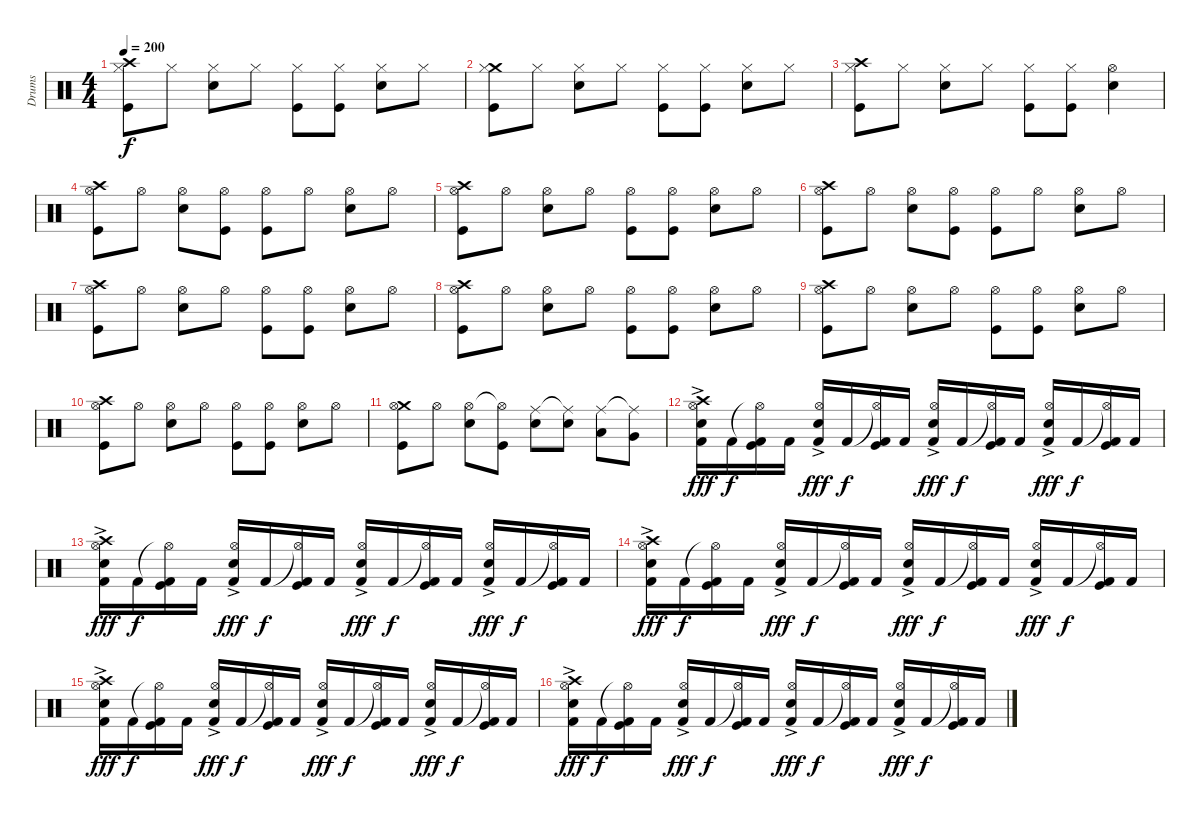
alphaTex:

\track ("Drums" "Drums") {instrument percussion}
\staff {score}
\articulation defaults
\ts (4 4)
\tempo 200
\clef neutral
\ks c
("Crash high (hit)" "Hi-Hat (closed)" "Kick (hit)").8{dy f} "Hi-Hat (closed)".8 ("Hi-Hat (closed)" "Snare (hit) 2").8 "Hi-Hat (closed)".8 ("Hi-Hat (closed)" "Kick (hit)").8 ("Hi-Hat (closed)" "Kick (hit)").8 ("Hi-Hat (closed)" "Snare (hit) 2").8 "Hi-Hat (closed)".8 |
("Crash medium (hit)" "Hi-Hat (closed)" "Kick (hit)").8 "Hi-Hat (closed)".8 ("Hi-Hat (closed)" "Snare (hit) 2").8 "Hi-Hat (closed)".8 ("Hi-Hat (closed)" "Kick (hit)").8 ("Hi-Hat (closed)" "Kick (hit)").8 ("Hi-Hat (closed)" "Snare (hit) 2").8 "Hi-Hat (closed)".8 |
("Crash high (hit)" "Hi-Hat (closed)" "Kick (hit)").8 "Hi-Hat (closed)".8 ("Hi-Hat (closed)" "Snare (hit) 2").8 "Hi-Hat (closed)".8 ("Hi-Hat (closed)" "Kick (hit)").8 ("Hi-Hat (closed)" "Kick (hit)").8 ("Hi-Hat (open)" "Snare (hit) 2").4 |
("Crash high (hit)" "Hi-Hat (open)" "Kick (hit)").8 "Hi-Hat (open)".8 ("Hi-Hat (open)" "Snare (hit) 2").8 ("Hi-Hat (open)" "Kick (hit)").8 ("Hi-Hat (open)" "Kick (hit)").8 "Hi-Hat (open)".8 ("Hi-Hat (open)" "Snare (hit) 2").8 "Hi-Hat (open)".8 |
("Crash high (hit)" "Hi-Hat (open)" "Kick (hit)").8 "Hi-Hat (open)".8 ("Hi-Hat (open)" "Snare (hit) 2").8 "Hi-Hat (open)".8 ("Hi-Hat (open)" "Kick (hit)").8 ("Hi-Hat (open)" "Kick (hit)").8 ("Hi-Hat (open)" "Snare (hit) 2").8 "Hi-Hat (open)".8 |
("Crash high (hit)" "Hi-Hat (open)" "Kick (hit)").8 "Hi-Hat (open)".8 ("Hi-Hat (open)" "Snare (hit) 2").8 ("Hi-Hat (open)" "Kick (hit)").8 ("Hi-Hat (open)" "Kick (hit)").8 "Hi-Hat (open)".8 ("Hi-Hat (open)" "Snare (hit) 2").8 "Hi-Hat (open)".8 |
("Crash high (hit)" "Hi-Hat (open)" "Kick (hit)").8 "Hi-Hat (open)".8 ("Hi-Hat (open)" "Snare (hit) 2").8 "Hi-Hat (open)".8 ("Hi-Hat (open)" "Kick (hit)").8 ("Hi-Hat (open)" "Kick (hit)").8 ("Hi-Hat (open)" "Snare (hit) 2").8 "Hi-Hat (open)".8 |
("Crash high (hit)" "Hi-Hat (open)" "Kick (hit)").8 "Hi-Hat (open)".8 ("Hi-Hat (open)" "Snare (hit) 2").8 "Hi-Hat (open)".8 ("Hi-Hat (open)" "Kick (hit)").8 ("Hi-Hat (open)" "Kick (hit)").8 ("Hi-Hat (open)" "Snare (hit) 2").8 "Hi-Hat (open)".8 |
("Crash high (hit)" "Hi-Hat (open)" "Kick (hit)").8 "Hi-Hat (open)".8 ("Hi-Hat (open)" "Snare (hit) 2").8 "Hi-Hat (open)".8 ("Hi-Hat (open)" "Kick (hit)").8 ("Hi-Hat (open)" "Kick (hit)").8 ("Hi-Hat (open)" "Snare (hit) 2").8 "Hi-Hat (open)".8 |
("Crash high (hit)" "Hi-Hat (open)" "Kick (hit)").8 "Hi-Hat (open)".8 ("Hi-Hat (open)" "Snare (hit) 2").8 "Hi-Hat (open)".8 ("Hi-Hat (open)" "Kick (hit)").8 ("Hi-Hat (open)" "Kick (hit)").8 ("Hi-Hat (open)" "Snare (hit) 2").8 "Hi-Hat (open)".8 |
("Crash medium (hit)" "Hi-Hat (open)" "Kick (hit)").8 "Hi-Hat (open)".8 ("Hi-Hat (open)" "Snare (hit) 2").8 ("Hi-Hat (open)"{t} "Kick (hit)").8 ("Ride (middle)" "Snare (hit) 2").8 ("Ride (middle)"{t} "Snare (hit) 2").8 ("Ride (middle)" "Low Tom (hit)").8 ("Ride (middle)"{t} "Very Low Tom (hit)").8 |
("Crash high (hit)"{ac} "Hi-Hat (open)"{ac} "Snare (hit) 2" "Kick (hit) 2").16{dy fff} "Kick (hit) 2".16{dy f} ("Hi-Hat (open)"{t} "Kick (hit)" "Kick (hit) 2").16 "Kick (hit) 2".16 ("Hi-Hat (open)"{ac} "Snare (hit) 2" "Kick (hit) 2").16{dy fff} "Kick (hit) 2".16{dy f} ("Hi-Hat (open)"{t} "Kick (hit)" "Kick (hit) 2").16 "Kick (hit) 2".16 ("Hi-Hat (open)"{ac} "Snare (hit) 2" "Kick (hit) 2").16{dy fff} "Kick (hit) 2".16{dy f} ("Hi-Hat (open)"{t} "Kick (hit)" "Kick (hit) 2").16 "Kick (hit) 2".16 ("Hi-Hat (open)"{ac} "Snare (hit) 2" "Kick (hit) 2").16{dy fff} "Kick (hit) 2".16{dy f} ("Hi-Hat (open)"{t} "Kick (hit)" "Kick (hit) 2").16 "Kick (hit) 2".16 |
("Crash high (hit)"{ac} "Hi-Hat (open)"{ac} "Snare (hit) 2" "Kick (hit) 2").16{dy fff} "Kick (hit) 2".16{dy f} ("Hi-Hat (open)"{t} "Kick (hit)" "Kick (hit) 2").16 "Kick (hit) 2".16 ("Hi-Hat (open)"{ac} "Snare (hit) 2" "Kick (hit) 2").16{dy fff} "Kick (hit) 2".16{dy f} ("Hi-Hat (open)"{t} "Kick (hit)" "Kick (hit) 2").16 "Kick (hit) 2".16 ("Hi-Hat (open)"{ac} "Snare (hit) 2" "Kick (hit) 2").16{dy fff} "Kick (hit) 2".16{dy f} ("Hi-Hat (open)"{t} "Kick (hit)" "Kick (hit) 2").16 "Kick (hit) 2".16 ("Hi-Hat (open)"{ac} "Snare (hit) 2" "Kick (hit) 2").16{dy fff} "Kick (hit) 2".16{dy f} ("Hi-Hat (open)"{t} "Kick (hit)" "Kick (hit) 2").16 "Kick (hit) 2".16 |
("Crash high (hit)"{ac} "Hi-Hat (open)"{ac} "Snare (hit) 2" "Kick (hit) 2").16{dy fff} "Kick (hit) 2".16{dy f} ("Hi-Hat (open)"{t} "Kick (hit)" "Kick (hit) 2").16 "Kick (hit) 2".16 ("Hi-Hat (open)"{ac} "Snare (hit) 2" "Kick (hit) 2").16{dy fff} "Kick (hit) 2".16{dy f} ("Hi-Hat (open)"{t} "Kick (hit)" "Kick (hit) 2").16 "Kick (hit) 2".16 ("Hi-Hat (open)"{ac} "Snare (hit) 2" "Kick (hit) 2").16{dy fff} "Kick (hit) 2".16{dy f} ("Hi-Hat (open)"{t} "Kick (hit)" "Kick (hit) 2").16 "Kick (hit) 2".16 ("Hi-Hat (open)"{ac} "Snare (hit) 2" "Kick (hit) 2").16{dy fff} "Kick (hit) 2".16{dy f} ("Hi-Hat (open)"{t} "Kick (hit)" "Kick (hit) 2").16 "Kick (hit) 2".16 |
("Crash high (hit)"{ac} "Hi-Hat (open)"{ac} "Snare (hit) 2" "Kick (hit) 2").16{dy fff} "Kick (hit) 2".16{dy f} ("Hi-Hat (open)"{t} "Kick (hit)" "Kick (hit) 2").16 "Kick (hit) 2".16 ("Hi-Hat (open)"{ac} "Snare (hit) 2" "Kick (hit) 2").16{dy fff} "Kick (hit) 2".16{dy f} ("Hi-Hat (open)"{t} "Kick (hit)" "Kick (hit) 2").16 "Kick (hit) 2".16 ("Hi-Hat (open)"{ac} "Snare (hit) 2" "Kick (hit) 2").16{dy fff} "Kick (hit) 2".16{dy f} ("Hi-Hat (open)"{t} "Kick (hit)" "Kick (hit) 2").16 "Kick (hit) 2".16 ("Hi-Hat (open)"{ac} "Snare (hit) 2" "Kick (hit) 2").16{dy fff} "Kick (hit) 2".16{dy f} ("Hi-Hat (open)"{t} "Kick (hit)" "Kick (hit) 2").16 "Kick (hit) 2".16 |
("Crash high (hit)"{ac} "Hi-Hat (open)"{ac} "Snare (hit) 2" "Kick (hit) 2").16{dy fff} "Kick (hit) 2".16{dy f} ("Hi-Hat (open)"{t} "Kick (hit)" "Kick (hit) 2").16 "Kick (hit) 2".16 ("Hi-Hat (open)"{ac} "Snare (hit) 2" "Kick (hit) 2").16{dy fff} "Kick (hit) 2".16{dy f} ("Hi-Hat (open)"{t} "Kick (hit)" "Kick (hit) 2").16 "Kick (hit) 2".16 ("Hi-Hat (open)"{ac} "Snare (hit) 2" "Kick (hit) 2").16{dy fff} "Kick (hit) 2".16{dy f} ("Hi-Hat (open)"{t} "Kick (hit)" "Kick (hit) 2").16 "Kick (hit) 2".16 ("Hi-Hat (open)"{ac} "Snare (hit) 2" "Kick (hit) 2").16{dy fff} "Kick (hit) 2".16{dy f} ("Hi-Hat (open)"{t} "Kick (hit)" "Kick (hit) 2").16 "Kick (hit) 2".16
